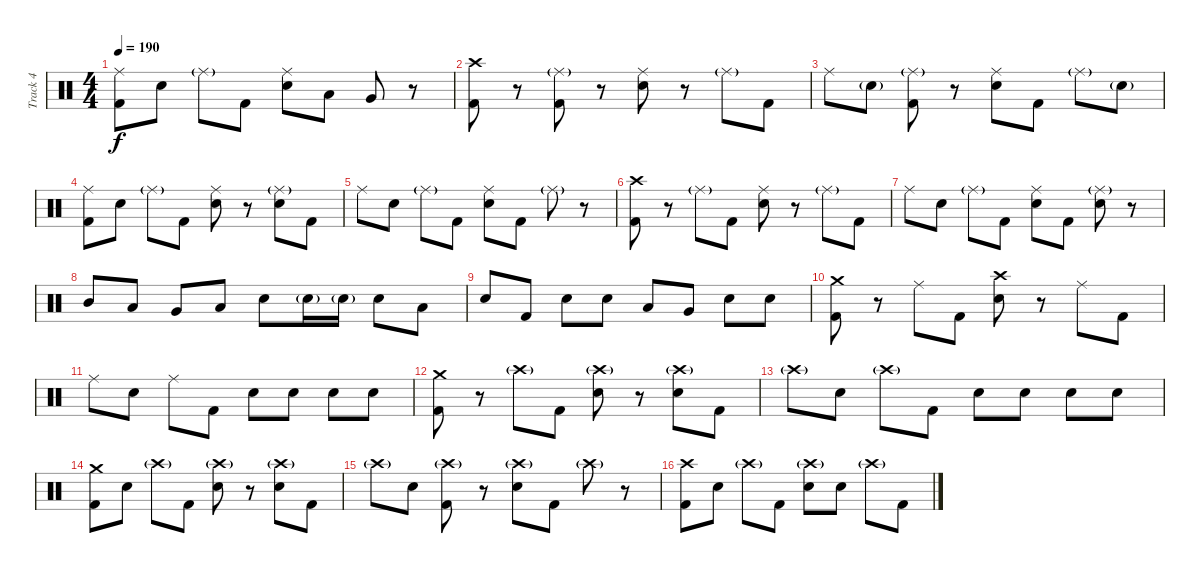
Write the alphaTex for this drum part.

\track ("Track 4" "Track 4") {instrument percussion}
\staff {score}
\articulation defaults
\ts (4 4)
\tempo 190
\clef neutral
\ks c
("Ride (middle)" "Kick (hit) 2").8{dy f} "Electric Snare (hit)".8 "Ride (middle)"{g}.8 "Kick (hit) 2".8 ("Ride (middle)" "Electric Snare (hit)").8 "Low Tom (hit)".8 "Very Low Tom (hit)".8 r.8 |
("Crash high (hit)" "Kick (hit) 2").8 r.8 ("Ride (middle)"{g} "Kick (hit) 2").8 r.8 ("Ride (middle)" "Electric Snare (hit)").8 r.8 "Ride (middle)"{g}.8 "Kick (hit) 2".8 |
"Ride (middle)".8 "Electric Snare (hit)"{g}.8 ("Ride (middle)"{g} "Kick (hit) 2").8 r.8 ("Ride (middle)" "Electric Snare (hit)").8 "Kick (hit) 2".8 "Ride (middle)"{g}.8 "Electric Snare (hit)"{g}.8 |
("Ride (middle)" "Kick (hit) 2").8 "Electric Snare (hit)".8 "Ride (middle)"{g}.8 "Kick (hit) 2".8 ("Ride (middle)" "Electric Snare (hit)").8 r.8 ("Ride (middle)"{g} "Electric Snare (hit)").8 "Kick (hit) 2".8 |
"Ride (middle)".8 "Electric Snare (hit)".8 "Ride (middle)"{g}.8 "Kick (hit) 2".8 ("Ride (middle)" "Electric Snare (hit)").8 "Kick (hit) 2".8 "Ride (middle)"{g}.8 r.8 |
("Crash high (hit)" "Kick (hit) 2").8 r.8 "Ride (middle)"{g}.8 "Kick (hit) 2".8 ("Ride (middle)" "Electric Snare (hit)").8 r.8 "Ride (middle)"{g}.8 "Kick (hit) 2".8 |
"Ride (middle)".8 "Electric Snare (hit)".8 "Ride (middle)"{g}.8 "Kick (hit) 2".8 ("Ride (middle)" "Electric Snare (hit)").8 "Kick (hit) 2".8 ("Ride (middle)"{g} "Electric Snare (hit)").8 r.8 |
"Mid Tom (hit)".8 "Low Tom (hit)".8 "Very Low Tom (hit)".8 "Low Floor Tom (hit)".8 "Electric Snare (hit)".8 "Electric Snare (hit)"{g}.16 "Electric Snare (hit)"{g}.16 "Electric Snare (hit)".8 "Low Tom (hit)".8 |
"Electric Snare (hit)".8 "Kick (hit) 2".8 "Electric Snare (hit)".8 "Electric Snare (hit)".8 "Low Tom (hit)".8 "Very Low Tom (hit)".8 "Electric Snare (hit)".8 "Electric Snare (hit)".8 |
("Crash medium (hit)" "Kick (hit) 2").8 r.8 "Ride (middle)".8 "Kick (hit) 2".8 ("Crash high (hit)" "Electric Snare (hit)").8 r.8 "Ride (middle)".8 "Kick (hit) 2".8 |
"Ride (middle)".8 "Electric Snare (hit)".8 "Ride (middle)".8 "Kick (hit) 2".8 "Electric Snare (hit)".8 "Electric Snare (hit)".8 "Electric Snare (hit)".8 "Electric Snare (hit)".8 |
("Crash medium (hit)" "Kick (hit) 2").8 r.8 "Crash high (hit)"{g}.8 "Kick (hit) 2".8 ("Crash high (hit)"{g} "Electric Snare (hit)").8 r.8 ("Crash high (hit)"{g} "Electric Snare (hit)").8 "Kick (hit) 2".8 |
"Crash high (hit)"{g}.8 "Electric Snare (hit)".8 "Crash high (hit)"{g}.8 "Kick (hit) 2".8 "Electric Snare (hit)".8 "Electric Snare (hit)".8 "Electric Snare (hit)".8 "Electric Snare (hit)".8 |
("Crash medium (hit)" "Kick (hit) 2").8 "Electric Snare (hit)".8 "Crash high (hit)"{g}.8 "Kick (hit) 2".8 ("Crash high (hit)"{g} "Electric Snare (hit)").8 r.8 ("Crash high (hit)"{g} "Electric Snare (hit)").8 "Kick (hit) 2".8 |
"Crash high (hit)"{g}.8 "Electric Snare (hit)".8 ("Crash high (hit)"{g} "Kick (hit) 2").8 r.8 ("Crash high (hit)"{g} "Electric Snare (hit)").8 "Kick (hit) 2".8 "Crash high (hit)"{g}.8 r.8 |
("Crash high (hit)" "Kick (hit) 2").8 "Electric Snare (hit)".8 "Crash high (hit)"{g}.8 "Kick (hit) 2".8 ("Crash high (hit)"{g} "Electric Snare (hit)").8 "Electric Snare (hit)".8 "Crash high (hit)"{g}.8 "Kick (hit) 2".8
